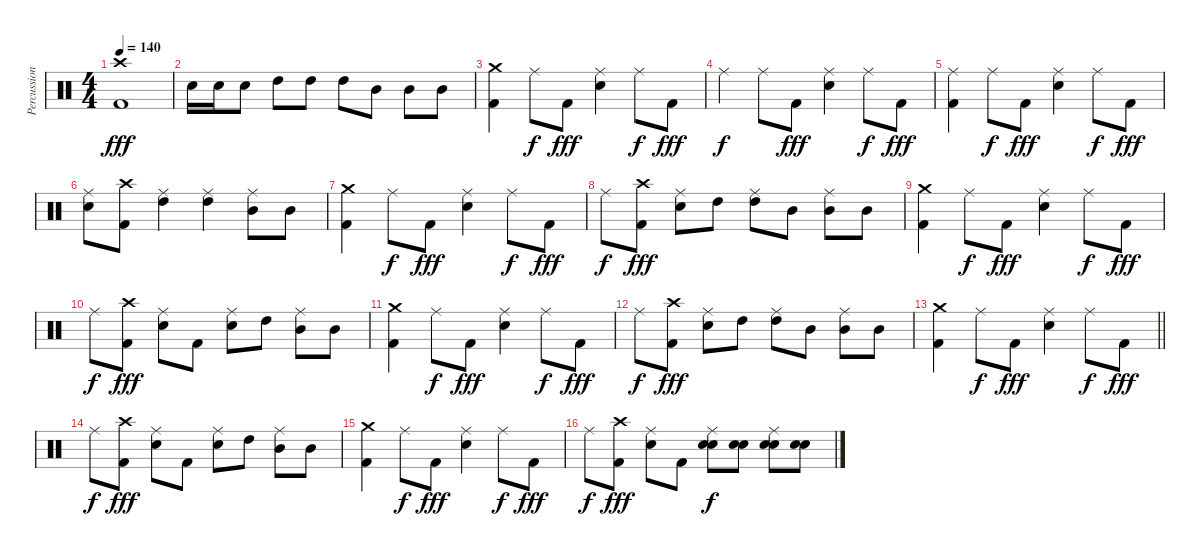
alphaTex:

\track ("Percussion" "Percussion") {instrument percussion}
\staff {score}
\articulation defaults
\ts (4 4)
\tempo 140
\clef neutral
\ks c
("Crash high (hit)" "Kick (hit) 2").1{dy fff} |
"Electric Snare (hit)".16 "Electric Snare (hit)".16 "Electric Snare (hit)".8 "High Tom (hit)".8 "High Tom (hit)".8 "High Tom (hit)".8 "Mid Tom (hit)".8 "Mid Tom (hit)".8 "Mid Tom (hit)".8 |
("Crash medium (hit)" "Kick (hit) 2").4 "Ride (middle)".8{dy f} "Kick (hit) 2".8{dy fff} ("Ride (middle)" "Electric Snare (hit)").4 "Ride (middle)".8{dy f} "Kick (hit) 2".8{dy fff} |
"Ride (middle)".4{dy f} "Ride (middle)".8 "Kick (hit) 2".8{dy fff} ("Ride (middle)" "Electric Snare (hit)").4 "Ride (middle)".8{dy f} "Kick (hit) 2".8{dy fff} |
("Ride (middle)" "Kick (hit) 2").4 "Ride (middle)".8{dy f} "Kick (hit) 2".8{dy fff} ("Ride (middle)" "Electric Snare (hit)").4 "Ride (middle)".8{dy f} "Kick (hit) 2".8{dy fff} |
("Ride (middle)" "Electric Snare (hit)").8 ("Crash high (hit)" "Kick (hit) 2").8 ("Ride (middle)" "High Tom (hit)").4 ("Ride (middle)" "High Tom (hit)").4 ("Ride (middle)" "Mid Tom (hit)").8 "Mid Tom (hit)".8 |
("Crash medium (hit)" "Kick (hit) 2").4 "Ride (middle)".8{dy f} "Kick (hit) 2".8{dy fff} ("Ride (middle)" "Electric Snare (hit)").4 "Ride (middle)".8{dy f} "Kick (hit) 2".8{dy fff} |
"Ride (middle)".8{dy f} ("Crash high (hit)" "Kick (hit) 2").8{dy fff} ("Ride (middle)" "Electric Snare (hit)").8 "High Tom (hit)".8 ("Ride (middle)" "High Tom (hit)").8 "Mid Tom (hit)".8 ("Ride (middle)" "Mid Tom (hit)").8 "Mid Tom (hit)".8 |
("Crash medium (hit)" "Kick (hit) 2").4 "Ride (middle)".8{dy f} "Kick (hit) 2".8{dy fff} ("Ride (middle)" "Electric Snare (hit)").4 "Ride (middle)".8{dy f} "Kick (hit) 2".8{dy fff} |
"Ride (middle)".8{dy f} ("Crash high (hit)" "Kick (hit) 2").8{dy fff} ("Ride (middle)" "Electric Snare (hit)").8 "Kick (hit) 2".8 ("Ride (middle)" "Electric Snare (hit)").8 "High Tom (hit)".8 ("Ride (middle)" "Mid Tom (hit)").8 "Mid Tom (hit)".8 |
("Crash medium (hit)" "Kick (hit) 2").4 "Ride (middle)".8{dy f} "Kick (hit) 2".8{dy fff} ("Ride (middle)" "Electric Snare (hit)").4 "Ride (middle)".8{dy f} "Kick (hit) 2".8{dy fff} |
"Ride (middle)".8{dy f} ("Crash high (hit)" "Kick (hit) 2").8{dy fff} ("Ride (middle)" "Electric Snare (hit)").8 "High Tom (hit)".8 ("Ride (middle)" "High Tom (hit)").8 "Mid Tom (hit)".8 ("Ride (middle)" "Mid Tom (hit)").8 "Mid Tom (hit)".8 |
\barLineRight lightlight
("Crash medium (hit)" "Kick (hit) 2").4 "Ride (middle)".8{dy f} "Kick (hit) 2".8{dy fff} ("Ride (middle)" "Electric Snare (hit)").4 "Ride (middle)".8{dy f} "Kick (hit) 2".8{dy fff} |
"Ride (middle)".8{dy f} ("Crash high (hit)" "Kick (hit) 2").8{dy fff} ("Ride (middle)" "Electric Snare (hit)").8 "Kick (hit) 2".8 ("Ride (middle)" "Electric Snare (hit)").8 "High Tom (hit)".8 ("Ride (middle)" "Mid Tom (hit)").8 "Mid Tom (hit)".8 |
("Crash medium (hit)" "Kick (hit) 2").4 "Ride (middle)".8{dy f} "Kick (hit) 2".8{dy fff} ("Ride (middle)" "Electric Snare (hit)").4 "Ride (middle)".8{dy f} "Kick (hit) 2".8{dy fff} |
"Ride (middle)".8{dy f} ("Crash high (hit)" "Kick (hit) 2").8{dy fff} ("Ride (middle)" "Electric Snare (hit)").8 "Kick (hit) 2".8 ("Ride (middle)" "Electric Snare (hit)" "Snare (hit) 2").8{dy f} ("Electric Snare (hit)" "Snare (hit) 2").8 ("Ride (middle)" "Electric Snare (hit)" "Snare (hit) 2").8 ("Electric Snare (hit)" "Snare (hit) 2").8
